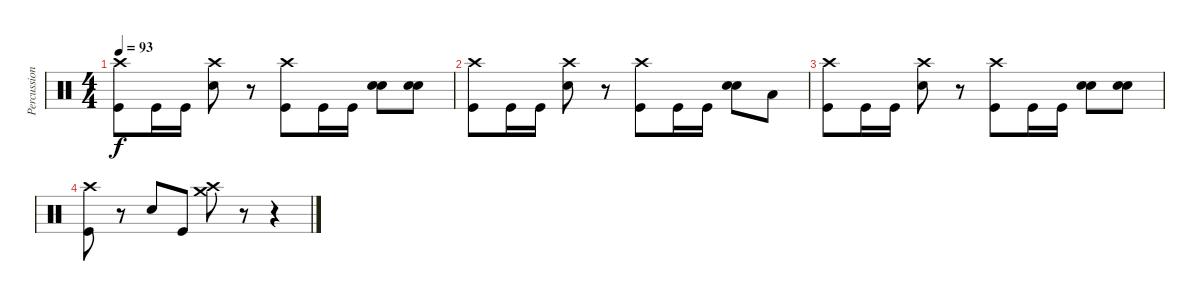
\track ("Percussions" "Percussion") {instrument percussion}
\staff {score}
\articulation defaults
\ts (4 4)
\tempo 93
\clef neutral
\ks c
("Crash high (hit)" "Kick (hit)").8{dy f volume 10} "Kick (hit)".16 "Kick (hit)".16 ("Crash high (hit)" "Electric Snare (hit)").8 r.8 ("Crash high (hit)" "Kick (hit)").8 "Kick (hit)".16 "Kick (hit)".16 ("Snare (hit) 2" "Electric Snare (hit)").8 ("Snare (hit) 2" "Electric Snare (hit)").8 |
("Crash high (hit)" "Kick (hit)").8 "Kick (hit)".16 "Kick (hit)".16 ("Crash high (hit)" "Electric Snare (hit)").8 r.8 ("Crash high (hit)" "Kick (hit)").8 "Kick (hit)".16 "Kick (hit)".16 ("Snare (hit) 2" "Electric Snare (hit)").8 "Low Floor Tom (hit)".8 |
("Crash high (hit)" "Kick (hit)").8 "Kick (hit)".16 "Kick (hit)".16 ("Crash high (hit)" "Electric Snare (hit)").8 r.8 ("Crash high (hit)" "Kick (hit)").8 "Kick (hit)".16 "Kick (hit)".16 ("Snare (hit) 2" "Electric Snare (hit)").8 ("Snare (hit) 2" "Electric Snare (hit)").8 |
("Crash high (hit)" "Kick (hit)").8 r.8 "Electric Snare (hit)".8 "Kick (hit)".8 ("Crash high (hit)" "Crash medium (hit)").8 r.8 r.4
